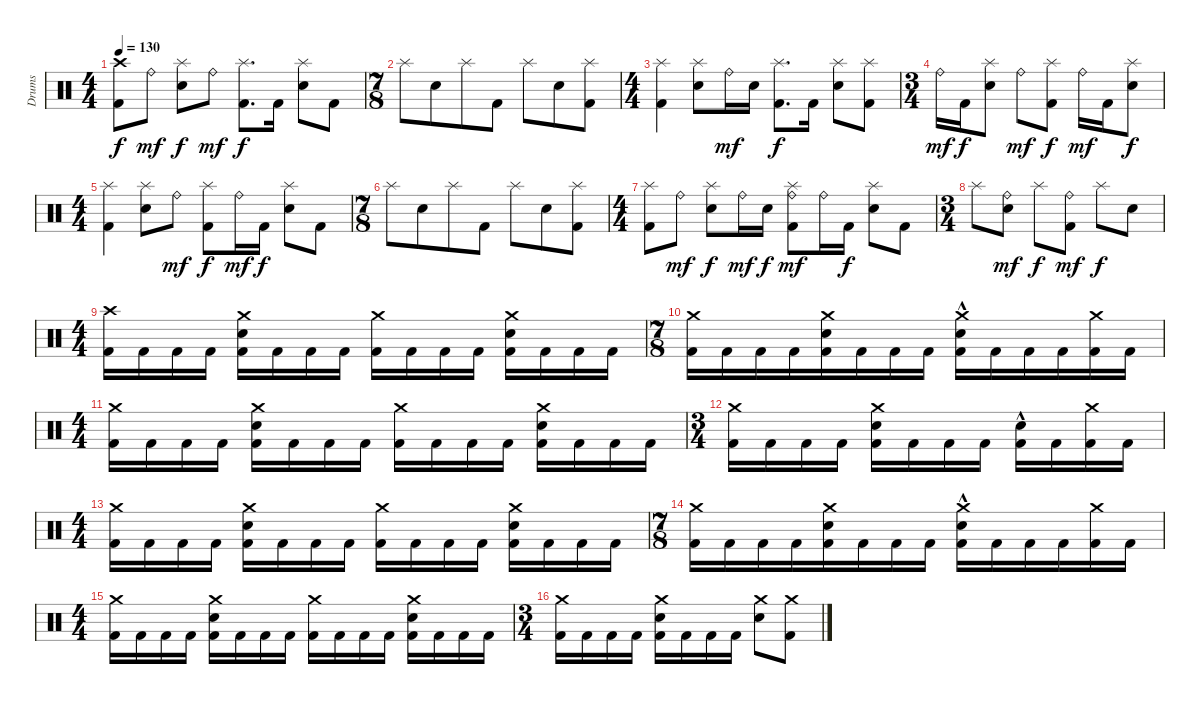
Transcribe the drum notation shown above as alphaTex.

\track ("Drums" "Drums") {instrument percussion}
\staff {score}
\articulation defaults
\ts (4 4)
\tempo 130
\clef neutral
\ks c
("Crash high (hit)" "Kick (hit) 2").8{dy f} "Ride (bell)".8{dy mf} ("Electric Snare (hit)" "Splash (hit)").8{dy f} "Ride (bell)".8{dy mf} ("Kick (hit) 2" "Splash (hit)").8{d dy f} "Kick (hit) 2".16 ("Electric Snare (hit)" "Splash (hit)").8 "Kick (hit) 2".8 |
\ts (7 8)
"Splash (hit)".8 "Electric Snare (hit)".8 "Splash (hit)".8 "Kick (hit) 2".8 "Splash (hit)".8 "Electric Snare (hit)".8 ("Kick (hit) 2" "Splash (hit)").8 |
\ts (4 4)
("Kick (hit) 2" "Splash (hit)").4 ("Electric Snare (hit)" "Splash (hit)").8 "Ride (bell)".16{dy mf} "Electric Snare (hit)".16 ("Kick (hit) 2" "Splash (hit)").8{d dy f} "Kick (hit) 2".16 ("Electric Snare (hit)" "Splash (hit)").8 ("Kick (hit) 2" "Splash (hit)").8 |
\ts (3 4)
"Ride (bell)".16{dy mf} "Kick (hit) 2".16{dy f} ("Electric Snare (hit)" "Splash (hit)").8 "Ride (bell)".8{dy mf} ("Kick (hit) 2" "Splash (hit)").8{dy f} "Ride (bell)".16{dy mf} "Kick (hit) 2".16 ("Electric Snare (hit)" "Splash (hit)").8{dy f} |
\ts (4 4)
("Kick (hit) 2" "Splash (hit)").4 ("Electric Snare (hit)" "Splash (hit)").8 "Ride (bell)".8{dy mf} ("Kick (hit) 2" "Splash (hit)").8{dy f} "Ride (bell)".16{dy mf} "Kick (hit) 2".16{dy f} ("Electric Snare (hit)" "Splash (hit)").8 "Kick (hit) 2".8 |
\ts (7 8)
"Splash (hit)".8 "Electric Snare (hit)".8 "Splash (hit)".8 "Kick (hit) 2".8 "Splash (hit)".8 "Electric Snare (hit)".8 ("Splash (hit)" "Kick (hit) 2").8 |
\ts (4 4)
("Kick (hit) 2" "Splash (hit)").8 "Ride (bell)".8{dy mf} ("Electric Snare (hit)" "Splash (hit)").8{dy f} "Ride (bell)".16{dy mf} "Electric Snare (hit)".16{dy f} ("Kick (hit) 2" "Splash (hit)" "Ride (bell)").8{dy mf} "Ride (bell)".16 "Kick (hit) 2".16{dy f} ("Electric Snare (hit)" "Splash (hit)").8 "Kick (hit) 2".8 |
\ts (3 4)
"Splash (hit)".8 ("Electric Snare (hit)" "Ride (bell)").8{dy mf} "Splash (hit)".8{dy f} ("Kick (hit) 2" "Ride (bell)").8{dy mf} "Splash (hit)".8{dy f} "Electric Snare (hit)".8 |
\ts (4 4)
("Crash high (hit)" "Kick (hit) 2").16 "Kick (hit) 2".16 "Kick (hit) 2".16 "Kick (hit) 2".16 ("Kick (hit) 2" "Electric Snare (hit)" "Crash medium (hit)").16 "Kick (hit) 2".16 "Kick (hit) 2".16 "Kick (hit) 2".16 ("Kick (hit) 2" "Crash medium (hit)").16 "Kick (hit) 2".16 "Kick (hit) 2".16 "Kick (hit) 2".16 ("Kick (hit) 2" "Electric Snare (hit)" "Crash medium (hit)").16 "Kick (hit) 2".16 "Kick (hit) 2".16 "Kick (hit) 2".16 |
\ts (7 8)
("Kick (hit) 2" "Crash medium (hit)").16 "Kick (hit) 2".16 "Kick (hit) 2".16 "Kick (hit) 2".16 ("Kick (hit) 2" "Electric Snare (hit)" "Crash medium (hit)").16 "Kick (hit) 2".16 "Kick (hit) 2".16 "Kick (hit) 2".16 ("Kick (hit) 2" "Electric Snare (hit)"{hac} "Crash medium (hit)").16 "Kick (hit) 2".16 "Kick (hit) 2".16 "Kick (hit) 2".16 ("Kick (hit) 2" "Crash medium (hit)").16 "Kick (hit) 2".16 |
\ts (4 4)
("Kick (hit) 2" "Crash medium (hit)").16 "Kick (hit) 2".16 "Kick (hit) 2".16 "Kick (hit) 2".16 ("Kick (hit) 2" "Crash medium (hit)" "Electric Snare (hit)").16 "Kick (hit) 2".16 "Kick (hit) 2".16 "Kick (hit) 2".16 ("Kick (hit) 2" "Crash medium (hit)").16 "Kick (hit) 2".16 "Kick (hit) 2".16 "Kick (hit) 2".16 ("Kick (hit) 2" "Electric Snare (hit)" "Crash medium (hit)").16 "Kick (hit) 2".16 "Kick (hit) 2".16 "Kick (hit) 2".16 |
\ts (3 4)
("Kick (hit) 2" "Crash medium (hit)").16 "Kick (hit) 2".16 "Kick (hit) 2".16 "Kick (hit) 2".16 ("Kick (hit) 2" "Electric Snare (hit)" "Crash medium (hit)").16 "Kick (hit) 2".16 "Kick (hit) 2".16 "Kick (hit) 2".16 ("Kick (hit) 2" "Electric Snare (hit)"{hac}).16 "Kick (hit) 2".16 ("Kick (hit) 2" "Crash medium (hit)").16 "Kick (hit) 2".16 |
\ts (4 4)
("Kick (hit) 2" "Crash medium (hit)").16 "Kick (hit) 2".16 "Kick (hit) 2".16 "Kick (hit) 2".16 ("Kick (hit) 2" "Electric Snare (hit)" "Crash medium (hit)").16 "Kick (hit) 2".16 "Kick (hit) 2".16 "Kick (hit) 2".16 ("Kick (hit) 2" "Crash medium (hit)").16 "Kick (hit) 2".16 "Kick (hit) 2".16 "Kick (hit) 2".16 ("Kick (hit) 2" "Electric Snare (hit)" "Crash medium (hit)").16 "Kick (hit) 2".16 "Kick (hit) 2".16 "Kick (hit) 2".16 |
\ts (7 8)
("Kick (hit) 2" "Crash medium (hit)").16 "Kick (hit) 2".16 "Kick (hit) 2".16 "Kick (hit) 2".16 ("Kick (hit) 2" "Electric Snare (hit)" "Crash medium (hit)").16 "Kick (hit) 2".16 "Kick (hit) 2".16 "Kick (hit) 2".16 ("Kick (hit) 2" "Electric Snare (hit)"{hac} "Crash medium (hit)").16 "Kick (hit) 2".16 "Kick (hit) 2".16 "Kick (hit) 2".16 ("Kick (hit) 2" "Crash medium (hit)").16 "Kick (hit) 2".16 |
\ts (4 4)
("Kick (hit) 2" "Crash medium (hit)").16 "Kick (hit) 2".16 "Kick (hit) 2".16 "Kick (hit) 2".16 ("Kick (hit) 2" "Crash medium (hit)" "Electric Snare (hit)").16 "Kick (hit) 2".16 "Kick (hit) 2".16 "Kick (hit) 2".16 ("Kick (hit) 2" "Crash medium (hit)").16 "Kick (hit) 2".16 "Kick (hit) 2".16 "Kick (hit) 2".16 ("Kick (hit) 2" "Electric Snare (hit)" "Crash medium (hit)").16 "Kick (hit) 2".16 "Kick (hit) 2".16 "Kick (hit) 2".16 |
\ts (3 4)
("Kick (hit) 2" "Crash medium (hit)").16 "Kick (hit) 2".16 "Kick (hit) 2".16 "Kick (hit) 2".16 ("Kick (hit) 2" "Electric Snare (hit)" "Crash medium (hit)").16 "Kick (hit) 2".16 "Kick (hit) 2".16 "Kick (hit) 2".16 ("Crash medium (hit)" "Electric Snare (hit)").8 ("Crash medium (hit)" "Kick (hit) 2").8
